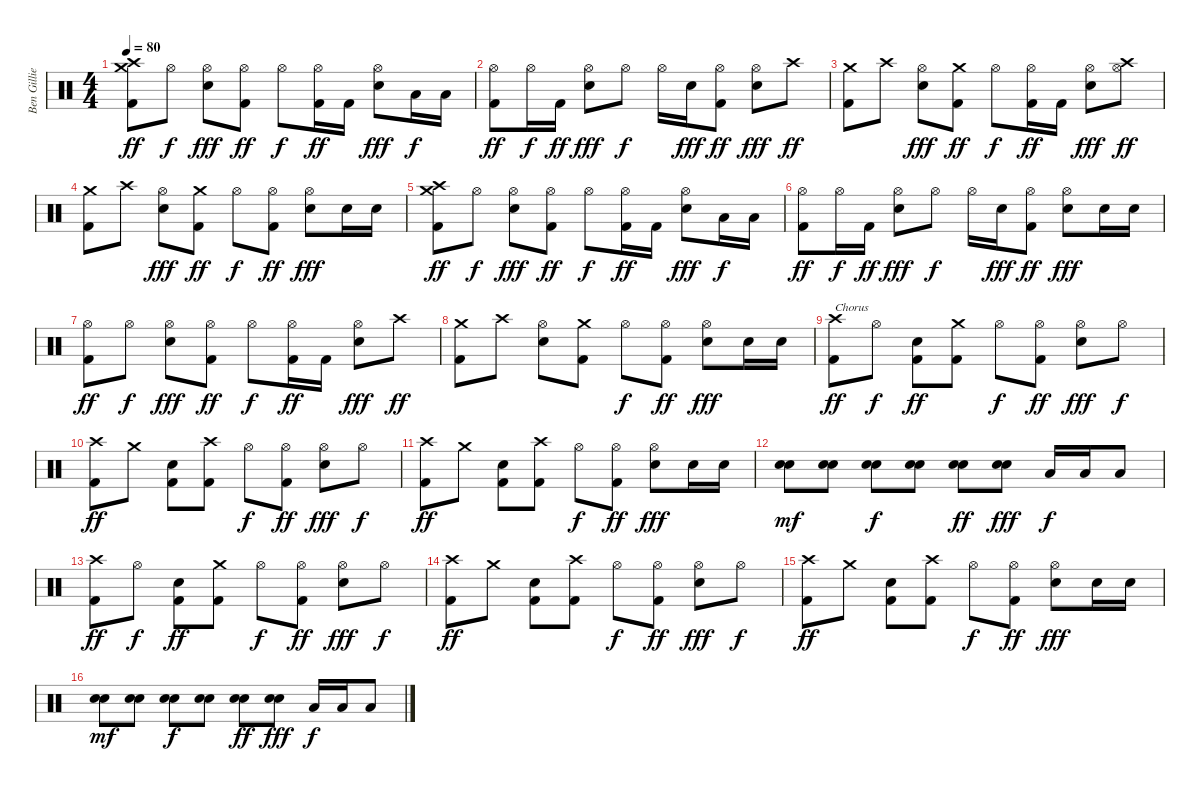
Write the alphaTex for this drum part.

\track ("Ben Gillies" "Ben Gillie") {instrument percussion}
\staff {score}
\articulation defaults
\ts (4 4)
\tempo 80
\clef neutral
\ks c
("Crash high (hit)" "Crash medium (hit)" "Kick (hit) 2").8{dy ff} "Hi-Hat (open)".8{dy f} ("Hi-Hat (open)" "Electric Snare (hit)").8{dy fff} ("Hi-Hat (open)" "Kick (hit) 2").8{dy ff} "Hi-Hat (open)".8{dy f} ("Hi-Hat (open)" "Kick (hit) 2").16{dy ff} "Kick (hit) 2".16 ("Hi-Hat (open)" "Electric Snare (hit)").8{dy fff} "Low Floor Tom (hit)".16{dy f} "Low Floor Tom (hit)".16 |
("Hi-Hat (open)" "Kick (hit) 2").8{dy ff} "Hi-Hat (open)".16{dy f} "Kick (hit) 2".16{dy ff} ("Hi-Hat (open)" "Electric Snare (hit)").8{dy fff} "Hi-Hat (open)".8{dy f} "Hi-Hat (open)".16 "Electric Snare (hit)".16{dy fff} ("Hi-Hat (open)" "Kick (hit) 2").8{dy ff} ("Hi-Hat (open)" "Electric Snare (hit)").8{dy fff} "Crash high (hit)".8{dy ff} |
("Crash medium (hit)" "Kick (hit) 2").8 "Crash high (hit)".8 ("Hi-Hat (open)" "Electric Snare (hit)").8{dy fff} ("Crash medium (hit)" "Kick (hit) 2").8{dy ff} "Hi-Hat (open)".8{dy f} ("Hi-Hat (open)" "Kick (hit) 2").16{dy ff} "Kick (hit) 2".16 ("Hi-Hat (open)" "Electric Snare (hit)").8{dy fff} ("Crash high (hit)" "Hi-Hat (open)").8{dy ff} |
("Crash medium (hit)" "Kick (hit) 2").8 "Crash high (hit)".8 ("Hi-Hat (open)" "Electric Snare (hit)").8{dy fff} ("Crash medium (hit)" "Kick (hit) 2").8{dy ff} "Hi-Hat (open)".8{dy f} ("Hi-Hat (open)" "Kick (hit) 2").8{dy ff} ("Hi-Hat (open)" "Electric Snare (hit)").8{dy fff} "Electric Snare (hit)".16 "Electric Snare (hit)".16 |
("Crash high (hit)" "Crash medium (hit)" "Kick (hit) 2").8{dy ff} "Hi-Hat (open)".8{dy f} ("Hi-Hat (open)" "Electric Snare (hit)").8{dy fff} ("Hi-Hat (open)" "Kick (hit) 2").8{dy ff} "Hi-Hat (open)".8{dy f} ("Hi-Hat (open)" "Kick (hit) 2").16{dy ff} "Kick (hit) 2".16 ("Hi-Hat (open)" "Electric Snare (hit)").8{dy fff} "Low Floor Tom (hit)".16{dy f} "Low Floor Tom (hit)".16 |
("Hi-Hat (open)" "Kick (hit) 2").8{dy ff} "Hi-Hat (open)".16{dy f} "Kick (hit) 2".16{dy ff} ("Hi-Hat (open)" "Electric Snare (hit)").8{dy fff} "Hi-Hat (open)".8{dy f} "Hi-Hat (open)".16 "Electric Snare (hit)".16{dy fff} ("Hi-Hat (open)" "Kick (hit) 2").8{dy ff} ("Hi-Hat (open)" "Electric Snare (hit)").8{dy fff} "Electric Snare (hit)".16 "Electric Snare (hit)".16 |
("Hi-Hat (open)" "Kick (hit) 2").8{dy ff} "Hi-Hat (open)".8{dy f} ("Hi-Hat (open)" "Electric Snare (hit)").8{dy fff} ("Hi-Hat (open)" "Kick (hit) 2").8{dy ff} "Hi-Hat (open)".8{dy f} ("Hi-Hat (open)" "Kick (hit) 2").16{dy ff} "Kick (hit) 2".16 ("Hi-Hat (open)" "Electric Snare (hit)").8{dy fff} "Crash high (hit)".8{dy ff} |
("Crash medium (hit)" "Kick (hit) 2").8 "Crash high (hit)".8 ("Hi-Hat (open)" "Electric Snare (hit)").8 ("Crash medium (hit)" "Kick (hit) 2").8 "Hi-Hat (open)".8{dy f} ("Hi-Hat (open)" "Kick (hit) 2").8{dy ff} ("Hi-Hat (open)" "Electric Snare (hit)").8{dy fff} "Electric Snare (hit)".16 "Electric Snare (hit)".16 |
("Crash high (hit)" "Kick (hit) 2").8{txt "Chorus" dy ff} "Hi-Hat (open)".8{dy f} ("Electric Snare (hit)" "Kick (hit) 2").8{dy ff} ("Crash medium (hit)" "Kick (hit) 2").8 "Hi-Hat (open)".8{dy f} ("Hi-Hat (open)" "Kick (hit) 2").8{dy ff} ("Hi-Hat (open)" "Electric Snare (hit)").8{dy fff} "Hi-Hat (open)".8{dy f} |
("Crash high (hit)" "Kick (hit) 2").8{dy ff} "Crash medium (hit)".8 ("Electric Snare (hit)" "Kick (hit) 2").8 ("Crash high (hit)" "Kick (hit) 2").8 "Hi-Hat (open)".8{dy f} ("Hi-Hat (open)" "Kick (hit) 2").8{dy ff} ("Hi-Hat (open)" "Electric Snare (hit)").8{dy fff} "Hi-Hat (open)".8{dy f} |
("Crash high (hit)" "Kick (hit) 2").8{dy ff} "Crash medium (hit)".8 ("Electric Snare (hit)" "Kick (hit) 2").8 ("Crash high (hit)" "Kick (hit) 2").8 "Hi-Hat (open)".8{dy f} ("Hi-Hat (open)" "Kick (hit) 2").8{dy ff} ("Hi-Hat (open)" "Electric Snare (hit)").8{dy fff} "Electric Snare (hit)".16 "Electric Snare (hit)".16 |
("Electric Snare (hit)" "Electric Snare (hit)").8{dy mf} ("Electric Snare (hit)" "Electric Snare (hit)").8 ("Electric Snare (hit)" "Electric Snare (hit)").8{dy f} ("Electric Snare (hit)" "Electric Snare (hit)").8 ("Electric Snare (hit)" "Electric Snare (hit)").8{dy ff} ("Electric Snare (hit)" "Electric Snare (hit)").8{dy fff} "Low Tom (hit)".16{dy f} "Low Tom (hit)".16 "Low Floor Tom (hit)".8 |
("Crash high (hit)" "Kick (hit) 2").8{dy ff} "Hi-Hat (open)".8{dy f} ("Electric Snare (hit)" "Kick (hit) 2").8{dy ff} ("Crash medium (hit)" "Kick (hit) 2").8 "Hi-Hat (open)".8{dy f} ("Hi-Hat (open)" "Kick (hit) 2").8{dy ff} ("Hi-Hat (open)" "Electric Snare (hit)").8{dy fff} "Hi-Hat (open)".8{dy f} |
("Crash high (hit)" "Kick (hit) 2").8{dy ff} "Crash medium (hit)".8 ("Electric Snare (hit)" "Kick (hit) 2").8 ("Crash high (hit)" "Kick (hit) 2").8 "Hi-Hat (open)".8{dy f} ("Hi-Hat (open)" "Kick (hit) 2").8{dy ff} ("Hi-Hat (open)" "Electric Snare (hit)").8{dy fff} "Hi-Hat (open)".8{dy f} |
("Crash high (hit)" "Kick (hit) 2").8{dy ff} "Crash medium (hit)".8 ("Electric Snare (hit)" "Kick (hit) 2").8 ("Crash high (hit)" "Kick (hit) 2").8 "Hi-Hat (open)".8{dy f} ("Hi-Hat (open)" "Kick (hit) 2").8{dy ff} ("Hi-Hat (open)" "Electric Snare (hit)").8{dy fff} "Electric Snare (hit)".16 "Electric Snare (hit)".16 |
("Electric Snare (hit)" "Electric Snare (hit)").8{dy mf} ("Electric Snare (hit)" "Electric Snare (hit)").8 ("Electric Snare (hit)" "Electric Snare (hit)").8{dy f} ("Electric Snare (hit)" "Electric Snare (hit)").8 ("Electric Snare (hit)" "Electric Snare (hit)").8{dy ff} ("Electric Snare (hit)" "Electric Snare (hit)").8{dy fff} "Low Tom (hit)".16{dy f} "Low Tom (hit)".16 "Low Floor Tom (hit)".8
